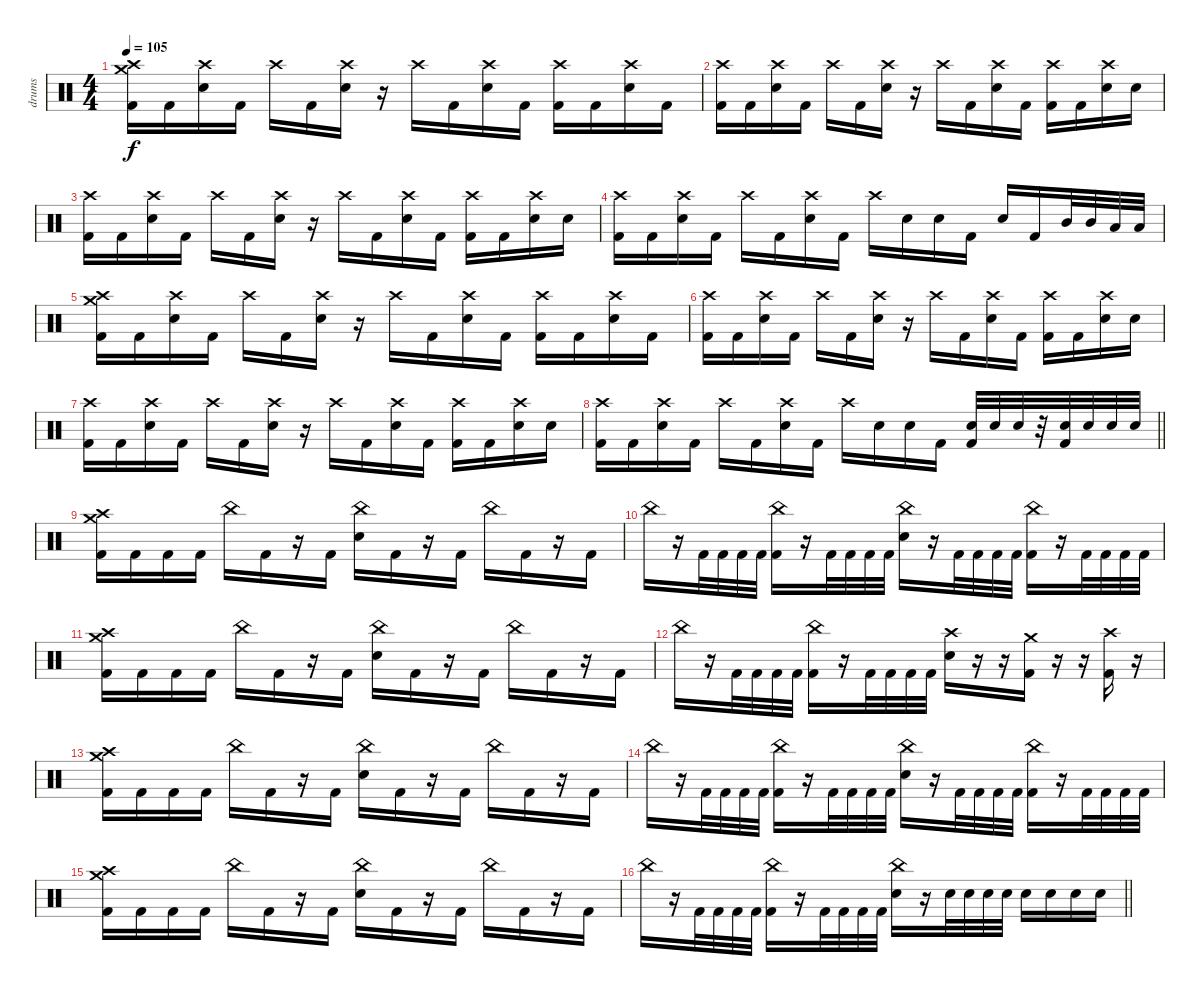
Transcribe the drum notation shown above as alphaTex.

\track ("drums" "drums") {instrument percussion}
\staff {score}
\articulation defaults
\ts (4 4)
\section ("" "")
\tempo 105
\clef neutral
\ks c
("Crash medium (hit)" "Crash high (hit)" "Kick (hit) 2").16{dy f} "Kick (hit) 2".16 ("Crash high (hit)" "Electric Snare (hit)").16 "Kick (hit) 2".16 "Crash high (hit)".16 "Kick (hit) 2".16 ("Crash high (hit)" "Electric Snare (hit)").16 r.16 "Crash high (hit)".16 "Kick (hit) 2".16 ("Crash high (hit)" "Electric Snare (hit)").16 "Kick (hit) 2".16 ("Crash high (hit)" "Kick (hit) 2").16 "Kick (hit) 2".16 ("Crash high (hit)" "Electric Snare (hit)").16 "Kick (hit) 2".16 |
("Crash high (hit)" "Kick (hit) 2").16 "Kick (hit) 2".16 ("Crash high (hit)" "Electric Snare (hit)").16 "Kick (hit) 2".16 "Crash high (hit)".16 "Kick (hit) 2".16 ("Crash high (hit)" "Electric Snare (hit)").16 r.16 "Crash high (hit)".16 "Kick (hit) 2".16 ("Crash high (hit)" "Electric Snare (hit)").16 "Kick (hit) 2".16 ("Crash high (hit)" "Kick (hit) 2").16 "Kick (hit) 2".16 ("Crash high (hit)" "Electric Snare (hit)").16 "Electric Snare (hit)".16 |
("Crash high (hit)" "Kick (hit) 2").16 "Kick (hit) 2".16 ("Crash high (hit)" "Electric Snare (hit)").16 "Kick (hit) 2".16 "Crash high (hit)".16 "Kick (hit) 2".16 ("Crash high (hit)" "Electric Snare (hit)").16 r.16 "Crash high (hit)".16 "Kick (hit) 2".16 ("Crash high (hit)" "Electric Snare (hit)").16 "Kick (hit) 2".16 ("Crash high (hit)" "Kick (hit) 2").16 "Kick (hit) 2".16 ("Crash high (hit)" "Electric Snare (hit)").16 "Electric Snare (hit)".16 |
("Crash high (hit)" "Kick (hit) 2").16 "Kick (hit) 2".16 ("Crash high (hit)" "Electric Snare (hit)").16 "Kick (hit) 2".16 "Crash high (hit)".16 "Kick (hit) 2".16 ("Crash high (hit)" "Electric Snare (hit)").16 "Kick (hit) 2".16 "Crash high (hit)".16 "Electric Snare (hit)".16 "Electric Snare (hit)".16 "Kick (hit) 2".16 "Electric Snare (hit)".16 "Kick (hit) 2".16 "Mid Tom (hit)".32 "Mid Tom (hit)".32 "Low Tom (hit)".32 "Low Tom (hit)".32 |
("Crash medium (hit)" "Crash high (hit)" "Kick (hit) 2").16 "Kick (hit) 2".16 ("Crash high (hit)" "Electric Snare (hit)").16 "Kick (hit) 2".16 "Crash high (hit)".16 "Kick (hit) 2".16 ("Crash high (hit)" "Electric Snare (hit)").16 r.16 "Crash high (hit)".16 "Kick (hit) 2".16 ("Crash high (hit)" "Electric Snare (hit)").16 "Kick (hit) 2".16 ("Crash high (hit)" "Kick (hit) 2").16 "Kick (hit) 2".16 ("Crash high (hit)" "Electric Snare (hit)").16 "Kick (hit) 2".16 |
("Crash high (hit)" "Kick (hit) 2").16 "Kick (hit) 2".16 ("Crash high (hit)" "Electric Snare (hit)").16 "Kick (hit) 2".16 "Crash high (hit)".16 "Kick (hit) 2".16 ("Crash high (hit)" "Electric Snare (hit)").16 r.16 "Crash high (hit)".16 "Kick (hit) 2".16 ("Crash high (hit)" "Electric Snare (hit)").16 "Kick (hit) 2".16 ("Crash high (hit)" "Kick (hit) 2").16 "Kick (hit) 2".16 ("Crash high (hit)" "Electric Snare (hit)").16 "Electric Snare (hit)".16 |
("Crash high (hit)" "Kick (hit) 2").16 "Kick (hit) 2".16 ("Crash high (hit)" "Electric Snare (hit)").16 "Kick (hit) 2".16 "Crash high (hit)".16 "Kick (hit) 2".16 ("Crash high (hit)" "Electric Snare (hit)").16 r.16 "Crash high (hit)".16 "Kick (hit) 2".16 ("Crash high (hit)" "Electric Snare (hit)").16 "Kick (hit) 2".16 ("Crash high (hit)" "Kick (hit) 2").16 "Kick (hit) 2".16 ("Crash high (hit)" "Electric Snare (hit)").16 "Electric Snare (hit)".16 |
\barLineRight lightlight
("Crash high (hit)" "Kick (hit) 2").16 "Kick (hit) 2".16 ("Crash high (hit)" "Electric Snare (hit)").16 "Kick (hit) 2".16 "Crash high (hit)".16 "Kick (hit) 2".16 ("Crash high (hit)" "Electric Snare (hit)").16 "Kick (hit) 2".16 "Crash high (hit)".16 "Electric Snare (hit)".16 "Electric Snare (hit)".16 "Kick (hit) 2".16 ("Kick (hit) 2" "Electric Snare (hit)").32 "Electric Snare (hit)".32 "Electric Snare (hit)".32 r.32 ("Kick (hit) 2" "Electric Snare (hit)").32 "Electric Snare (hit)".32 "Electric Snare (hit)".32 "Electric Snare (hit)".32 |
\section ("" "")
("Crash medium (hit)" "Crash high (hit)" "Kick (hit) 2").16 "Kick (hit) 2".16 "Kick (hit) 2".16 "Kick (hit) 2".16 "China (hit)".16 "Kick (hit) 2".16 r.16 "Kick (hit) 2".16 ("China (hit)" "Electric Snare (hit)").16 "Kick (hit) 2".16 r.16 "Kick (hit) 2".16 "China (hit)".16 "Kick (hit) 2".16 r.16 "Kick (hit) 2".16 |
"China (hit)".16 r.16 "Kick (hit) 2".32 "Kick (hit) 2".32 "Kick (hit) 2".32 "Kick (hit) 2".32 ("China (hit)" "Kick (hit) 2").16 r.16 "Kick (hit) 2".32 "Kick (hit) 2".32 "Kick (hit) 2".32 "Kick (hit) 2".32 ("China (hit)" "Electric Snare (hit)").16 r.16 "Kick (hit) 2".32 "Kick (hit) 2".32 "Kick (hit) 2".32 "Kick (hit) 2".32 ("China (hit)" "Kick (hit) 2").16 r.16 "Kick (hit) 2".32 "Kick (hit) 2".32 "Kick (hit) 2".32 "Kick (hit) 2".32 |
("Crash medium (hit)" "Crash high (hit)" "Kick (hit) 2").16 "Kick (hit) 2".16 "Kick (hit) 2".16 "Kick (hit) 2".16 "China (hit)".16 "Kick (hit) 2".16 r.16 "Kick (hit) 2".16 ("China (hit)" "Electric Snare (hit)").16 "Kick (hit) 2".16 r.16 "Kick (hit) 2".16 "China (hit)".16 "Kick (hit) 2".16 r.16 "Kick (hit) 2".16 |
"China (hit)".16 r.16 "Kick (hit) 2".32 "Kick (hit) 2".32 "Kick (hit) 2".32 "Kick (hit) 2".32 ("China (hit)" "Kick (hit) 2").16 r.16 "Kick (hit) 2".32 "Kick (hit) 2".32 "Kick (hit) 2".32 "Kick (hit) 2".32 ("Crash high (hit)" "Electric Snare (hit)").16 r.16 r.16 ("Crash medium (hit)" "Kick (hit) 2").16 r.16 r.16 ("Crash high (hit)" "Kick (hit) 2").16 r.16 |
("Crash medium (hit)" "Crash high (hit)" "Kick (hit) 2").16 "Kick (hit) 2".16 "Kick (hit) 2".16 "Kick (hit) 2".16 "China (hit)".16 "Kick (hit) 2".16 r.16 "Kick (hit) 2".16 ("China (hit)" "Electric Snare (hit)").16 "Kick (hit) 2".16 r.16 "Kick (hit) 2".16 "China (hit)".16 "Kick (hit) 2".16 r.16 "Kick (hit) 2".16 |
"China (hit)".16 r.16 "Kick (hit) 2".32 "Kick (hit) 2".32 "Kick (hit) 2".32 "Kick (hit) 2".32 ("China (hit)" "Kick (hit) 2").16 r.16 "Kick (hit) 2".32 "Kick (hit) 2".32 "Kick (hit) 2".32 "Kick (hit) 2".32 ("China (hit)" "Electric Snare (hit)").16 r.16 "Kick (hit) 2".32 "Kick (hit) 2".32 "Kick (hit) 2".32 "Kick (hit) 2".32 ("China (hit)" "Kick (hit) 2").16 r.16 "Kick (hit) 2".32 "Kick (hit) 2".32 "Kick (hit) 2".32 "Kick (hit) 2".32 |
("Crash medium (hit)" "Crash high (hit)" "Kick (hit) 2").16 "Kick (hit) 2".16 "Kick (hit) 2".16 "Kick (hit) 2".16 "China (hit)".16 "Kick (hit) 2".16 r.16 "Kick (hit) 2".16 ("China (hit)" "Electric Snare (hit)").16 "Kick (hit) 2".16 r.16 "Kick (hit) 2".16 "China (hit)".16 "Kick (hit) 2".16 r.16 "Kick (hit) 2".16 |
\barLineRight lightlight "China (hit)".16
r.16 "Kick (hit) 2".32 "Kick (hit) 2".32 "Kick (hit) 2".32 "Kick (hit) 2".32 ("China (hit)" "Kick (hit) 2").16 r.16 "Kick (hit) 2".32 "Kick (hit) 2".32 "Kick (hit) 2".32 "Kick (hit) 2".32 ("China (hit)" "Electric Snare (hit)").16 r.16 "Electric Snare (hit)".32 "Electric Snare (hit)".32 "Electric Snare (hit)".32 "Electric Snare (hit)".32 "Electric Snare (hit)".16 "Electric Snare (hit)".16 "Electric Snare (hit)".16 "Electric Snare (hit)".16
